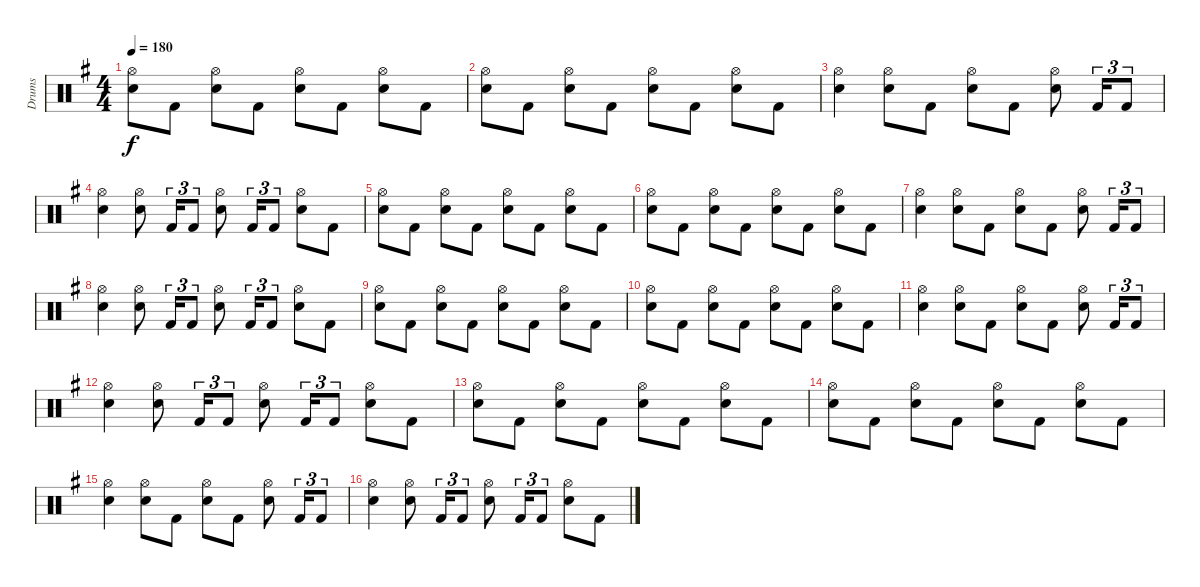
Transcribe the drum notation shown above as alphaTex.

\track ("Drums" "Drums") {instrument percussion}
\staff {score}
\articulation defaults
\ts (4 4)
\tempo 180
\clef neutral
\ks g
("Hi-Hat (open)" "Snare (hit) 2").8{dy f} "Kick (hit) 2".8 ("Hi-Hat (open)" "Snare (hit) 2").8 "Kick (hit) 2".8 ("Hi-Hat (open)" "Snare (hit) 2").8 "Kick (hit) 2".8 ("Hi-Hat (open)" "Snare (hit) 2").8 "Kick (hit) 2".8 |
("Hi-Hat (open)" "Snare (hit) 2").8 "Kick (hit) 2".8 ("Hi-Hat (open)" "Snare (hit) 2").8 "Kick (hit) 2".8 ("Hi-Hat (open)" "Snare (hit) 2").8 "Kick (hit) 2".8 ("Hi-Hat (open)" "Snare (hit) 2").8 "Kick (hit) 2".8 |
("Hi-Hat (open)" "Snare (hit) 2").4 ("Hi-Hat (open)" "Snare (hit) 2").8 "Kick (hit) 2".8 ("Hi-Hat (open)" "Snare (hit) 2").8 "Kick (hit) 2".8 ("Hi-Hat (open)" "Snare (hit) 2").8 "Kick (hit) 2".16{tu (3 2)} "Kick (hit) 2".8{tu (3 2)} |
("Hi-Hat (open)" "Snare (hit) 2").4 ("Hi-Hat (open)" "Snare (hit) 2").8 "Kick (hit) 2".16{tu (3 2)} "Kick (hit) 2".8{tu (3 2)} ("Hi-Hat (open)" "Snare (hit) 2").8 "Kick (hit) 2".16{tu (3 2)} "Kick (hit) 2".8{tu (3 2)} ("Hi-Hat (open)" "Snare (hit) 2").8 "Kick (hit) 2".8 |
("Hi-Hat (open)" "Snare (hit) 2").8 "Kick (hit) 2".8 ("Hi-Hat (open)" "Snare (hit) 2").8 "Kick (hit) 2".8 ("Hi-Hat (open)" "Snare (hit) 2").8 "Kick (hit) 2".8 ("Hi-Hat (open)" "Snare (hit) 2").8 "Kick (hit) 2".8 |
("Hi-Hat (open)" "Snare (hit) 2").8 "Kick (hit) 2".8 ("Hi-Hat (open)" "Snare (hit) 2").8 "Kick (hit) 2".8 ("Hi-Hat (open)" "Snare (hit) 2").8 "Kick (hit) 2".8 ("Hi-Hat (open)" "Snare (hit) 2").8 "Kick (hit) 2".8 |
("Hi-Hat (open)" "Snare (hit) 2").4 ("Hi-Hat (open)" "Snare (hit) 2").8 "Kick (hit) 2".8 ("Hi-Hat (open)" "Snare (hit) 2").8 "Kick (hit) 2".8 ("Hi-Hat (open)" "Snare (hit) 2").8 "Kick (hit) 2".16{tu (3 2)} "Kick (hit) 2".8{tu (3 2)} |
("Hi-Hat (open)" "Snare (hit) 2").4 ("Hi-Hat (open)" "Snare (hit) 2").8 "Kick (hit) 2".16{tu (3 2)} "Kick (hit) 2".8{tu (3 2)} ("Hi-Hat (open)" "Snare (hit) 2").8 "Kick (hit) 2".16{tu (3 2)} "Kick (hit) 2".8{tu (3 2)} ("Hi-Hat (open)" "Snare (hit) 2").8 "Kick (hit) 2".8 |
("Hi-Hat (open)" "Snare (hit) 2").8 "Kick (hit) 2".8 ("Hi-Hat (open)" "Snare (hit) 2").8 "Kick (hit) 2".8 ("Hi-Hat (open)" "Snare (hit) 2").8 "Kick (hit) 2".8 ("Hi-Hat (open)" "Snare (hit) 2").8 "Kick (hit) 2".8 |
("Hi-Hat (open)" "Snare (hit) 2").8 "Kick (hit) 2".8 ("Hi-Hat (open)" "Snare (hit) 2").8 "Kick (hit) 2".8 ("Hi-Hat (open)" "Snare (hit) 2").8 "Kick (hit) 2".8 ("Hi-Hat (open)" "Snare (hit) 2").8 "Kick (hit) 2".8 |
("Hi-Hat (open)" "Snare (hit) 2").4 ("Hi-Hat (open)" "Snare (hit) 2").8 "Kick (hit) 2".8 ("Hi-Hat (open)" "Snare (hit) 2").8 "Kick (hit) 2".8 ("Hi-Hat (open)" "Snare (hit) 2").8 "Kick (hit) 2".16{tu (3 2)} "Kick (hit) 2".8{tu (3 2)} |
("Hi-Hat (open)" "Snare (hit) 2").4 ("Hi-Hat (open)" "Snare (hit) 2").8 "Kick (hit) 2".16{tu (3 2)} "Kick (hit) 2".8{tu (3 2)} ("Hi-Hat (open)" "Snare (hit) 2").8 "Kick (hit) 2".16{tu (3 2)} "Kick (hit) 2".8{tu (3 2)} ("Hi-Hat (open)" "Snare (hit) 2").8 "Kick (hit) 2".8 |
("Hi-Hat (open)" "Snare (hit) 2").8 "Kick (hit) 2".8 ("Hi-Hat (open)" "Snare (hit) 2").8 "Kick (hit) 2".8 ("Hi-Hat (open)" "Snare (hit) 2").8 "Kick (hit) 2".8 ("Hi-Hat (open)" "Snare (hit) 2").8 "Kick (hit) 2".8 |
("Hi-Hat (open)" "Snare (hit) 2").8 "Kick (hit) 2".8 ("Hi-Hat (open)" "Snare (hit) 2").8 "Kick (hit) 2".8 ("Hi-Hat (open)" "Snare (hit) 2").8 "Kick (hit) 2".8 ("Hi-Hat (open)" "Snare (hit) 2").8 "Kick (hit) 2".8 |
("Hi-Hat (open)" "Snare (hit) 2").4 ("Hi-Hat (open)" "Snare (hit) 2").8 "Kick (hit) 2".8 ("Hi-Hat (open)" "Snare (hit) 2").8 "Kick (hit) 2".8 ("Hi-Hat (open)" "Snare (hit) 2").8 "Kick (hit) 2".16{tu (3 2)} "Kick (hit) 2".8{tu (3 2)} |
("Hi-Hat (open)" "Snare (hit) 2").4 ("Hi-Hat (open)" "Snare (hit) 2").8 "Kick (hit) 2".16{tu (3 2)} "Kick (hit) 2".8{tu (3 2)} ("Hi-Hat (open)" "Snare (hit) 2").8 "Kick (hit) 2".16{tu (3 2)} "Kick (hit) 2".8{tu (3 2)} ("Hi-Hat (open)" "Snare (hit) 2").8 "Kick (hit) 2".8
